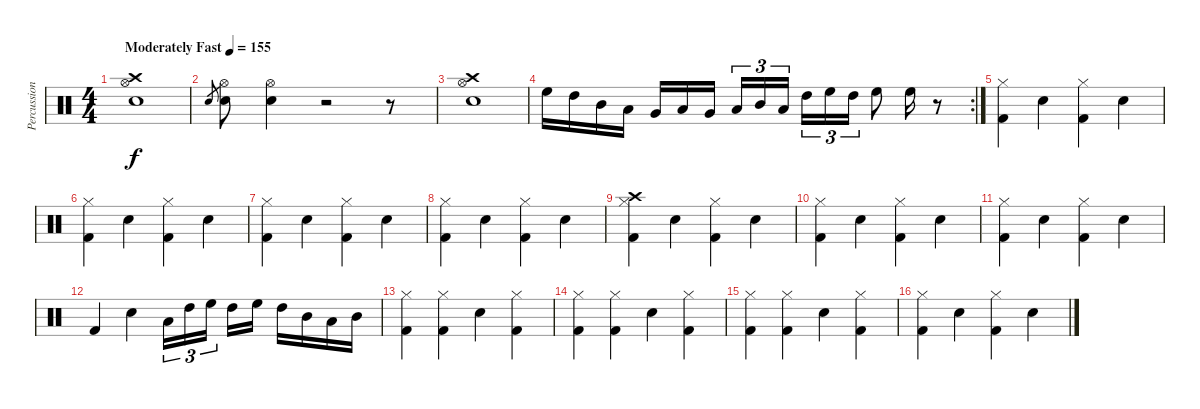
\track ("Percussion" "Percussion") {instrument percussion}
\staff {score}
\articulation defaults
\ts (4 4)
\tempo (155 "Moderately Fast")
\clef neutral
\ks c
("Hi-Hat (open)" "Crash high (hit)" "Electric Snare (hit)").1{dy f} |
"Electric Snare (hit)".8{gr} ("Hi-Hat (open)" "Electric Snare (hit)").8 ("Hi-Hat (open)" "Electric Snare (hit)").4 r.2 r.8 |
("Hi-Hat (open)" "Crash high (hit)" "Electric Snare (hit)").1 |
\rc 2 "High Floor Tom (hit)".16 "High Tom (hit)".16 "Mid Tom (hit)".16 "Low Tom (hit)".16 "Very Low Tom (hit)".16 "Low Floor Tom (hit)".16 "Very Low Tom (hit)".16{beam splitsecondary} "Low Tom (hit)".16{tu (3 2)} "Mid Tom (hit)".16{tu (3 2)} "Low Tom (hit)".16{tu (3 2) beam splitsecondary} "High Tom (hit)".16{tu (3 2)} "High Floor Tom (hit)".16{tu (3 2)} "High Tom (hit)".16{tu (3 2)} "High Floor Tom (hit)".8 "High Floor Tom (hit)".16
r.8 |
("Hi-Hat (closed)" "Kick (hit) 2").4 "Electric Snare (hit)".4 ("Hi-Hat (closed)" "Kick (hit) 2").4 "Electric Snare (hit)".4 |
("Hi-Hat (closed)" "Kick (hit) 2").4 "Electric Snare (hit)".4 ("Hi-Hat (closed)" "Kick (hit) 2").4 "Electric Snare (hit)".4 |
("Hi-Hat (closed)" "Kick (hit) 2").4 "Electric Snare (hit)".4 ("Hi-Hat (closed)" "Kick (hit) 2").4 "Electric Snare (hit)".4 |
("Hi-Hat (closed)" "Kick (hit) 2").4 "Electric Snare (hit)".4 ("Hi-Hat (closed)" "Kick (hit) 2").4 "Electric Snare (hit)".4 |
("Crash high (hit)" "Hi-Hat (closed)" "Kick (hit) 2").4 "Electric Snare (hit)".4 ("Hi-Hat (closed)" "Kick (hit) 2").4 "Electric Snare (hit)".4 |
("Hi-Hat (closed)" "Kick (hit) 2").4 "Electric Snare (hit)".4 ("Hi-Hat (closed)" "Kick (hit) 2").4 "Electric Snare (hit)".4 |
("Hi-Hat (closed)" "Kick (hit) 2").4 "Electric Snare (hit)".4 ("Hi-Hat (closed)" "Kick (hit) 2").4 "Electric Snare (hit)".4 |
"Kick (hit) 2".4 "Electric Snare (hit)".4 "Low Tom (hit)".16{tu (3 2)} "High Tom (hit)".16{tu (3 2)} "High Floor Tom (hit)".16{tu (3 2) beam splitsecondary} "High Tom (hit)".16 "High Floor Tom (hit)".16 "High Tom (hit)".16 "Mid Tom (hit)".16 "Low Tom (hit)".16 "Mid Tom (hit)".16 |
("Hi-Hat (closed)" "Kick (hit) 2").4 ("Hi-Hat (closed)" "Kick (hit) 2").4 "Electric Snare (hit)".4 ("Hi-Hat (closed)" "Kick (hit) 2").4 |
("Hi-Hat (closed)" "Kick (hit) 2").4 ("Hi-Hat (closed)" "Kick (hit) 2").4 "Electric Snare (hit)".4 ("Hi-Hat (closed)" "Kick (hit) 2").4 |
("Hi-Hat (closed)" "Kick (hit) 2").4 ("Hi-Hat (closed)" "Kick (hit) 2").4 "Electric Snare (hit)".4 ("Hi-Hat (closed)" "Kick (hit) 2").4 |
("Hi-Hat (closed)" "Kick (hit) 2").4 "Electric Snare (hit)".4 ("Hi-Hat (closed)" "Kick (hit) 2").4 "Electric Snare (hit)".4
